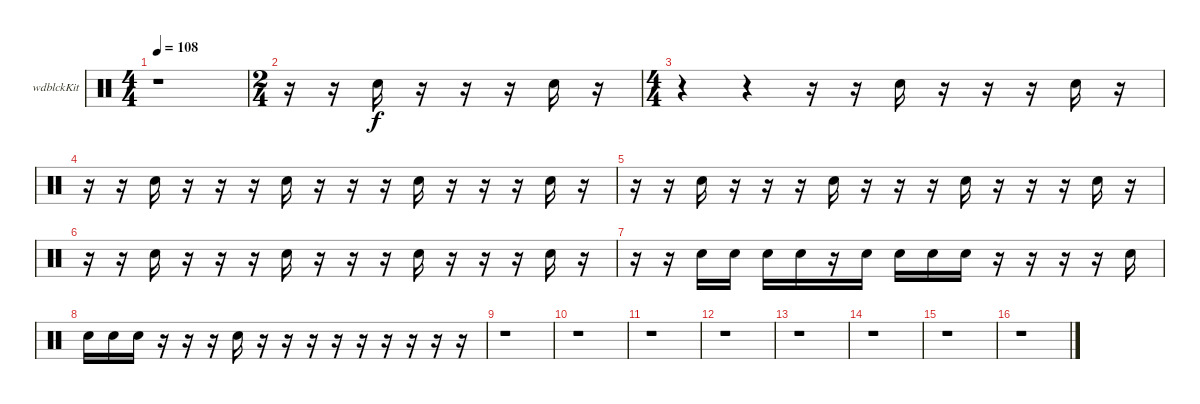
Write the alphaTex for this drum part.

\bracketExtendMode groupsimilarinstruments
\firstSystemTrackNameOrientation horizontal
\otherSystemsTrackNameOrientation horizontal
\track ("Woodblock" "wdblckKit") {instrument percussion}
\staff {score}
\articulation defaults
\ts (4 4)
\tempo 108
\clef neutral
\ks c
r.1{dy f} |
\ts (2 4)
\beaming (8 2 2)
r.16 r.16 "Snare (hit) 2".16 r.16 r.16 r.16 "Snare (hit) 2".16 r.16 |
\ts (4 4)
\beaming (8 2 2 2 2)
r.4 r.4 r.16 r.16 "Snare (hit) 2".16 r.16 r.16 r.16 "Snare (hit) 2".16 r.16 |
r.16 r.16 "Snare (hit) 2".16 r.16 r.16 r.16 "Snare (hit) 2".16 r.16 r.16 r.16 "Snare (hit) 2".16 r.16 r.16 r.16 "Snare (hit) 2".16 r.16 |
r.16 r.16 "Snare (hit) 2".16 r.16 r.16 r.16 "Snare (hit) 2".16 r.16 r.16 r.16 "Snare (hit) 2".16 r.16 r.16 r.16 "Snare (hit) 2".16 r.16 |
r.16 r.16 "Snare (hit) 2".16 r.16 r.16 r.16 "Snare (hit) 2".16 r.16 r.16 r.16 "Snare (hit) 2".16 r.16 r.16 r.16 "Snare (hit) 2".16 r.16 |
r.16 r.16 "Snare (hit) 2".16 "Snare (hit) 2".16 "Snare (hit) 2".16 "Snare (hit) 2".16 r.16 "Snare (hit) 2".16 "Snare (hit) 2".16 "Snare (hit) 2".16 "Snare (hit) 2".16 r.16 r.16 r.16 r.16 "Snare (hit) 2".16 |
"Snare (hit) 2".16 "Snare (hit) 2".16 "Snare (hit) 2".16 r.16 r.16 r.16 "Snare (hit) 2".16 r.16 r.16 r.16 r.16 r.16 r.16 r.16 r.16 r.16 |
r.1 |
r.1 |
r.1 |
r.1 |
r.1 |
r.1 |
r.1 |
r.1
